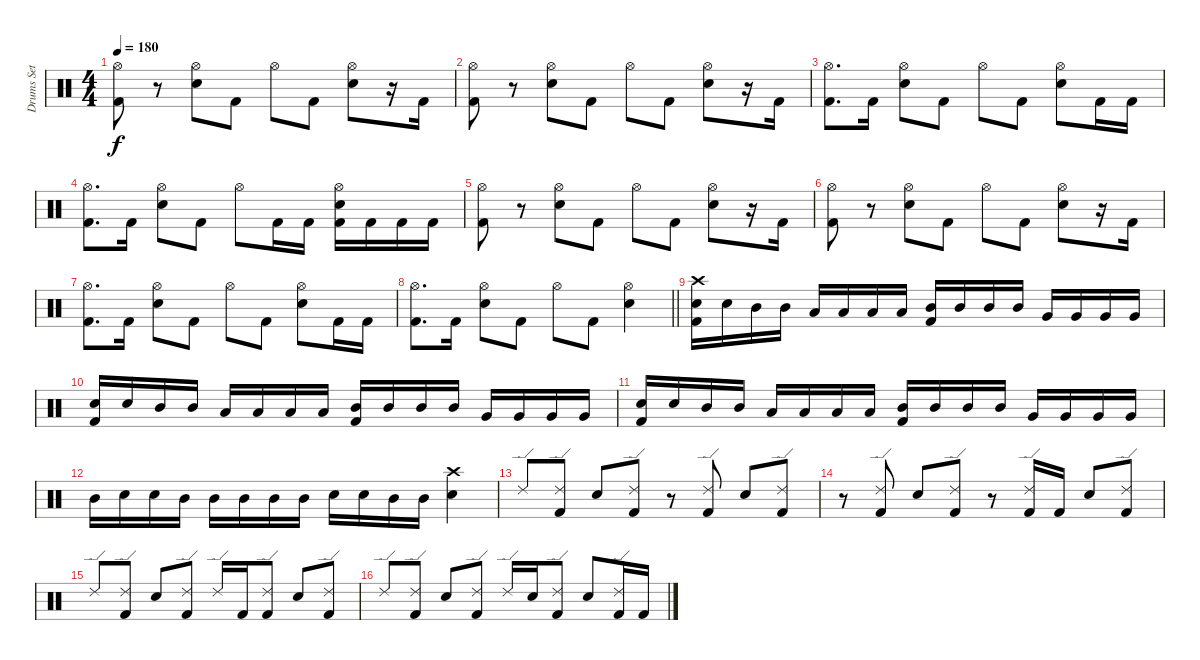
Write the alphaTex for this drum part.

\track ("Drums Set" "Drums Set") {instrument percussion}
\staff {score}
\articulation defaults
\ts (4 4)
\tempo 180
\clef neutral
\ks c
("Hi-Hat (open)" "Kick (hit) 2").8{dy f} r.8 ("Hi-Hat (open)" "Snare (hit) 2").8 "Kick (hit) 2".8 "Hi-Hat (open)".8 "Kick (hit) 2".8 ("Hi-Hat (open)" "Snare (hit) 2").8 r.16 "Kick (hit) 2".16 |
("Hi-Hat (open)" "Kick (hit) 2").8 r.8 ("Hi-Hat (open)" "Snare (hit) 2").8 "Kick (hit) 2".8 "Hi-Hat (open)".8 "Kick (hit) 2".8 ("Hi-Hat (open)" "Snare (hit) 2").8 r.16 "Kick (hit) 2".16 |
("Hi-Hat (open)" "Kick (hit) 2").8{d} "Kick (hit) 2".16 ("Hi-Hat (open)" "Snare (hit) 2").8 "Kick (hit) 2".8 "Hi-Hat (open)".8 "Kick (hit) 2".8 ("Hi-Hat (open)" "Snare (hit) 2").8 "Kick (hit) 2".16 "Kick (hit) 2".16 |
("Hi-Hat (open)" "Kick (hit) 2").8{d} "Kick (hit) 2".16 ("Hi-Hat (open)" "Snare (hit) 2").8 "Kick (hit) 2".8 "Hi-Hat (open)".8 "Kick (hit) 2".16 "Kick (hit) 2".16 ("Hi-Hat (open)" "Snare (hit) 2" "Kick (hit) 2").16 "Kick (hit) 2".16 "Kick (hit) 2".16 "Kick (hit) 2".16 |
("Hi-Hat (open)" "Kick (hit) 2").8 r.8 ("Hi-Hat (open)" "Snare (hit) 2").8 "Kick (hit) 2".8 "Hi-Hat (open)".8 "Kick (hit) 2".8 ("Hi-Hat (open)" "Snare (hit) 2").8 r.16 "Kick (hit) 2".16 |
("Hi-Hat (open)" "Kick (hit) 2").8 r.8 ("Hi-Hat (open)" "Snare (hit) 2").8 "Kick (hit) 2".8 "Hi-Hat (open)".8 "Kick (hit) 2".8 ("Hi-Hat (open)" "Snare (hit) 2").8 r.16 "Kick (hit) 2".16 |
("Hi-Hat (open)" "Kick (hit) 2").8{d} "Kick (hit) 2".16 ("Hi-Hat (open)" "Snare (hit) 2").8 "Kick (hit) 2".8 "Hi-Hat (open)".8 "Kick (hit) 2".8 ("Hi-Hat (open)" "Snare (hit) 2").8 "Kick (hit) 2".16 "Kick (hit) 2".16 |
\barLineRight lightlight
("Hi-Hat (open)" "Kick (hit) 2").8{d} "Kick (hit) 2".16 ("Hi-Hat (open)" "Snare (hit) 2").8 "Kick (hit) 2".8 "Hi-Hat (open)".8 "Kick (hit) 2".8 ("Hi-Hat (open)" "Snare (hit) 2").4 |
("Crash high (hit)" "Snare (hit) 2" "Kick (hit) 2").16 "Snare (hit) 2".16 "Mid Tom (hit)".16 "Mid Tom (hit)".16 "Low Tom (hit)".16 "Low Tom (hit)".16 "Low Tom (hit)".16 "Low Tom (hit)".16 ("Mid Tom (hit)" "Kick (hit) 2").16 "Mid Tom (hit)".16 "Mid Tom (hit)".16 "Mid Tom (hit)".16 "Very Low Tom (hit)".16 "Very Low Tom (hit)".16 "Very Low Tom (hit)".16 "Very Low Tom (hit)".16 |
("Snare (hit) 2" "Kick (hit) 2").16 "Snare (hit) 2".16 "Mid Tom (hit)".16 "Mid Tom (hit)".16 "Low Tom (hit)".16 "Low Tom (hit)".16 "Low Tom (hit)".16 "Low Tom (hit)".16 ("Mid Tom (hit)" "Kick (hit) 2").16 "Mid Tom (hit)".16 "Mid Tom (hit)".16 "Mid Tom (hit)".16 "Very Low Tom (hit)".16 "Very Low Tom (hit)".16 "Very Low Tom (hit)".16 "Very Low Tom (hit)".16 |
("Snare (hit) 2" "Kick (hit) 2").16 "Snare (hit) 2".16 "Mid Tom (hit)".16 "Mid Tom (hit)".16 "Low Tom (hit)".16 "Low Tom (hit)".16 "Low Tom (hit)".16 "Low Tom (hit)".16 ("Mid Tom (hit)" "Kick (hit) 2").16 "Mid Tom (hit)".16 "Mid Tom (hit)".16 "Mid Tom (hit)".16 "Very Low Tom (hit)".16 "Very Low Tom (hit)".16 "Very Low Tom (hit)".16 "Very Low Tom (hit)".16 |
"Mid Tom (hit)".16 "Snare (hit) 2".16 "Snare (hit) 2".16 "Mid Tom (hit)".16 "Mid Tom (hit)".16 "Mid Tom (hit)".16 "Mid Tom (hit)".16 "Mid Tom (hit)".16 "Snare (hit) 2".16 "Snare (hit) 2".16 "Mid Tom (hit)".16 "Mid Tom (hit)".16 ("Crash high (hit)" "Snare (hit) 2").4 |
"Ride (edge) 2".8 ("Ride (edge) 2" "Kick (hit) 2").8 "Snare (hit) 2".8 ("Ride (edge) 2" "Kick (hit) 2").8 r.8 ("Ride (edge) 2" "Kick (hit) 2").8 "Snare (hit) 2".8 ("Ride (edge) 2" "Kick (hit) 2").8 |
r.8 ("Ride (edge) 2" "Kick (hit) 2").8 "Snare (hit) 2".8 ("Ride (edge) 2" "Kick (hit) 2").8 r.8 ("Ride (edge) 2" "Kick (hit) 2").16 "Kick (hit) 2".16 "Snare (hit) 2".8 ("Ride (edge) 2" "Kick (hit) 2").8 |
"Ride (edge) 2".8 ("Ride (edge) 2" "Kick (hit) 2").8 "Snare (hit) 2".8 ("Ride (edge) 2" "Kick (hit) 2").8 "Ride (edge) 2".16 "Kick (hit) 2".16 ("Ride (edge) 2" "Kick (hit) 2").8 "Snare (hit) 2".8 ("Ride (edge) 2" "Kick (hit) 2").8 |
"Ride (edge) 2".8 ("Ride (edge) 2" "Kick (hit) 2").8 "Snare (hit) 2".8 ("Ride (edge) 2" "Kick (hit) 2").8 "Ride (edge) 2".16 "Snare (hit) 2".16 ("Ride (edge) 2" "Kick (hit) 2").8 "Snare (hit) 2".8 ("Ride (edge) 2" "Kick (hit) 2").16 "Kick (hit) 2".16
